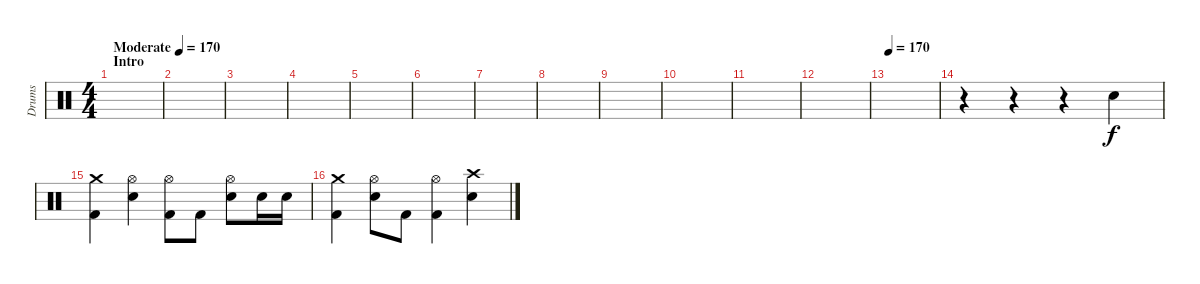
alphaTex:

\track ("Drums" "Drums") {instrument percussion}
\staff {score}
\articulation defaults
\ts (4 4)
\section ("" "Intro")
\tempo (170 "Moderate")
\tempo 138
\tempo (170 "Moderate")
\clef neutral
\ks c
|
|
|
|
|
|
|
|
|
|
|
|
\tempo 170
|
r.4 r.4 r.4 "Electric Snare (hit)".4 |
("Crash medium (hit)" "Kick (hit) 2").4 ("Hi-Hat (open)" "Electric Snare (hit)").4 ("Hi-Hat (open)" "Kick (hit) 2").8 "Kick (hit) 2".8 ("Hi-Hat (open)" "Electric Snare (hit)").8 "Electric Snare (hit)".16 "Electric Snare (hit)".16 |
("Crash medium (hit)" "Kick (hit) 2").4 ("Hi-Hat (open)" "Electric Snare (hit)").8 "Kick (hit) 2".8 ("Hi-Hat (open)" "Kick (hit) 2").4 ("Crash high (hit)" "Electric Snare (hit)").4
